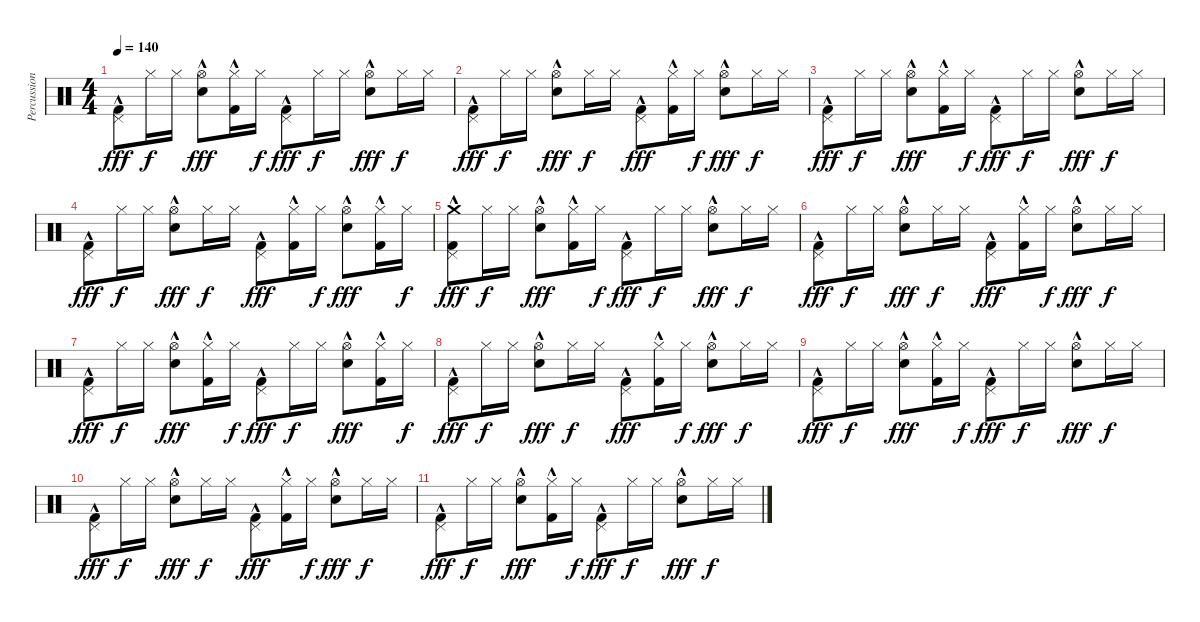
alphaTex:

\track ("Percussion" "Percussion") {instrument percussion}
\staff {score}
\articulation defaults
\ts (4 4)
\tempo 140
\clef neutral
\ks c
("Pedal Hi-Hat (hit)" "Kick (hit) 2"{hac}).8{dy fff} "Hi-Hat (closed)".16{dy f} "Hi-Hat (closed)".16 ("Hi-Hat (open)" "Electric Snare (hit)"{hac}).8{dy fff} ("Hi-Hat (closed)" "Kick (hit) 2"{hac}).16 "Hi-Hat (closed)".16{dy f} ("Pedal Hi-Hat (hit)" "Kick (hit) 2"{hac}).8{dy fff} "Hi-Hat (closed)".16{dy f} "Hi-Hat (closed)".16 ("Hi-Hat (open)" "Electric Snare (hit)"{hac}).8{dy fff} "Hi-Hat (closed)".16{dy f} "Hi-Hat (closed)".16 |
("Pedal Hi-Hat (hit)" "Kick (hit) 2"{hac}).8{dy fff} "Hi-Hat (closed)".16{dy f} "Hi-Hat (closed)".16 ("Hi-Hat (open)" "Electric Snare (hit)"{hac}).8{dy fff} "Hi-Hat (closed)".16{dy f} "Hi-Hat (closed)".16 ("Pedal Hi-Hat (hit)" "Kick (hit) 2"{hac}).8{dy fff} ("Hi-Hat (closed)" "Kick (hit) 2"{hac}).16 "Hi-Hat (closed)".16{dy f} ("Hi-Hat (open)" "Electric Snare (hit)"{hac}).8{dy fff} "Hi-Hat (closed)".16{dy f} "Hi-Hat (closed)".16 |
("Pedal Hi-Hat (hit)" "Kick (hit) 2"{hac}).8{dy fff} "Hi-Hat (closed)".16{dy f} "Hi-Hat (closed)".16 ("Hi-Hat (open)" "Electric Snare (hit)"{hac}).8{dy fff} ("Hi-Hat (closed)" "Kick (hit) 2"{hac}).16 "Hi-Hat (closed)".16{dy f} ("Pedal Hi-Hat (hit)" "Kick (hit) 2"{hac}).8{dy fff} "Hi-Hat (closed)".16{dy f} "Hi-Hat (closed)".16 ("Hi-Hat (open)" "Electric Snare (hit)"{hac}).8{dy fff} "Hi-Hat (closed)".16{dy f} "Hi-Hat (closed)".16 |
("Pedal Hi-Hat (hit)" "Kick (hit) 2"{hac}).8{dy fff} "Hi-Hat (closed)".16{dy f} "Hi-Hat (closed)".16 ("Hi-Hat (open)" "Electric Snare (hit)"{hac}).8{dy fff} "Hi-Hat (closed)".16{dy f} "Hi-Hat (closed)".16 ("Pedal Hi-Hat (hit)" "Kick (hit) 2"{hac}).8{dy fff} ("Hi-Hat (closed)" "Kick (hit) 2"{hac}).16 "Hi-Hat (closed)".16{dy f} ("Hi-Hat (open)" "Electric Snare (hit)"{hac}).8{dy fff} ("Hi-Hat (closed)" "Kick (hit) 2"{hac}).16 "Hi-Hat (closed)".16{dy f} |
("Crash medium (hit)"{hac} "Pedal Hi-Hat (hit)" "Kick (hit) 2"{hac}).8{dy fff} "Hi-Hat (closed)".16{dy f} "Hi-Hat (closed)".16 ("Hi-Hat (open)" "Electric Snare (hit)"{hac}).8{dy fff} ("Hi-Hat (closed)" "Kick (hit) 2"{hac}).16 "Hi-Hat (closed)".16{dy f} ("Pedal Hi-Hat (hit)" "Kick (hit) 2"{hac}).8{dy fff} "Hi-Hat (closed)".16{dy f} "Hi-Hat (closed)".16 ("Hi-Hat (open)" "Electric Snare (hit)"{hac}).8{dy fff} "Hi-Hat (closed)".16{dy f} "Hi-Hat (closed)".16 |
("Pedal Hi-Hat (hit)" "Kick (hit) 2"{hac}).8{dy fff} "Hi-Hat (closed)".16{dy f} "Hi-Hat (closed)".16 ("Hi-Hat (open)" "Electric Snare (hit)"{hac}).8{dy fff} "Hi-Hat (closed)".16{dy f} "Hi-Hat (closed)".16 ("Pedal Hi-Hat (hit)" "Kick (hit) 2"{hac}).8{dy fff} ("Hi-Hat (closed)" "Kick (hit) 2"{hac}).16 "Hi-Hat (closed)".16{dy f} ("Hi-Hat (open)" "Electric Snare (hit)"{hac}).8{dy fff} "Hi-Hat (closed)".16{dy f} "Hi-Hat (closed)".16 |
("Pedal Hi-Hat (hit)" "Kick (hit) 2"{hac}).8{dy fff} "Hi-Hat (closed)".16{dy f} "Hi-Hat (closed)".16 ("Hi-Hat (open)" "Electric Snare (hit)"{hac}).8{dy fff} ("Hi-Hat (closed)" "Kick (hit) 2"{hac}).16 "Hi-Hat (closed)".16{dy f} ("Pedal Hi-Hat (hit)" "Kick (hit) 2"{hac}).8{dy fff} "Hi-Hat (closed)".16{dy f} "Hi-Hat (closed)".16 ("Hi-Hat (open)" "Electric Snare (hit)"{hac}).8{dy fff} ("Hi-Hat (closed)" "Kick (hit) 2"{hac}).16 "Hi-Hat (closed)".16{dy f} |
("Pedal Hi-Hat (hit)" "Kick (hit) 2"{hac}).8{dy fff} "Hi-Hat (closed)".16{dy f} "Hi-Hat (closed)".16 ("Hi-Hat (open)" "Electric Snare (hit)"{hac}).8{dy fff} "Hi-Hat (closed)".16{dy f} "Hi-Hat (closed)".16 ("Pedal Hi-Hat (hit)" "Kick (hit) 2"{hac}).8{dy fff} ("Hi-Hat (closed)" "Kick (hit) 2"{hac}).16 "Hi-Hat (closed)".16{dy f} ("Hi-Hat (open)" "Electric Snare (hit)"{hac}).8{dy fff} "Hi-Hat (closed)".16{dy f} "Hi-Hat (closed)".16 |
("Pedal Hi-Hat (hit)" "Kick (hit) 2"{hac}).8{dy fff} "Hi-Hat (closed)".16{dy f} "Hi-Hat (closed)".16 ("Hi-Hat (open)" "Electric Snare (hit)"{hac}).8{dy fff} ("Hi-Hat (closed)" "Kick (hit) 2"{hac}).16 "Hi-Hat (closed)".16{dy f} ("Pedal Hi-Hat (hit)" "Kick (hit) 2"{hac}).8{dy fff} "Hi-Hat (closed)".16{dy f} "Hi-Hat (closed)".16 ("Hi-Hat (open)" "Electric Snare (hit)"{hac}).8{dy fff} "Hi-Hat (closed)".16{dy f} "Hi-Hat (closed)".16 |
("Pedal Hi-Hat (hit)" "Kick (hit) 2"{hac}).8{dy fff} "Hi-Hat (closed)".16{dy f} "Hi-Hat (closed)".16 ("Hi-Hat (open)" "Electric Snare (hit)"{hac}).8{dy fff} "Hi-Hat (closed)".16{dy f} "Hi-Hat (closed)".16 ("Pedal Hi-Hat (hit)" "Kick (hit) 2"{hac}).8{dy fff} ("Hi-Hat (closed)" "Kick (hit) 2"{hac}).16 "Hi-Hat (closed)".16{dy f} ("Hi-Hat (open)" "Electric Snare (hit)"{hac}).8{dy fff} "Hi-Hat (closed)".16{dy f} "Hi-Hat (closed)".16 |
("Pedal Hi-Hat (hit)" "Kick (hit) 2"{hac}).8{dy fff} "Hi-Hat (closed)".16{dy f} "Hi-Hat (closed)".16 ("Hi-Hat (open)" "Electric Snare (hit)"{hac}).8{dy fff} ("Hi-Hat (closed)" "Kick (hit) 2"{hac}).16 "Hi-Hat (closed)".16{dy f} ("Pedal Hi-Hat (hit)" "Kick (hit) 2"{hac}).8{dy fff} "Hi-Hat (closed)".16{dy f} "Hi-Hat (closed)".16 ("Hi-Hat (open)" "Electric Snare (hit)"{hac}).8{dy fff} "Hi-Hat (closed)".16{dy f} "Hi-Hat (closed)".16
